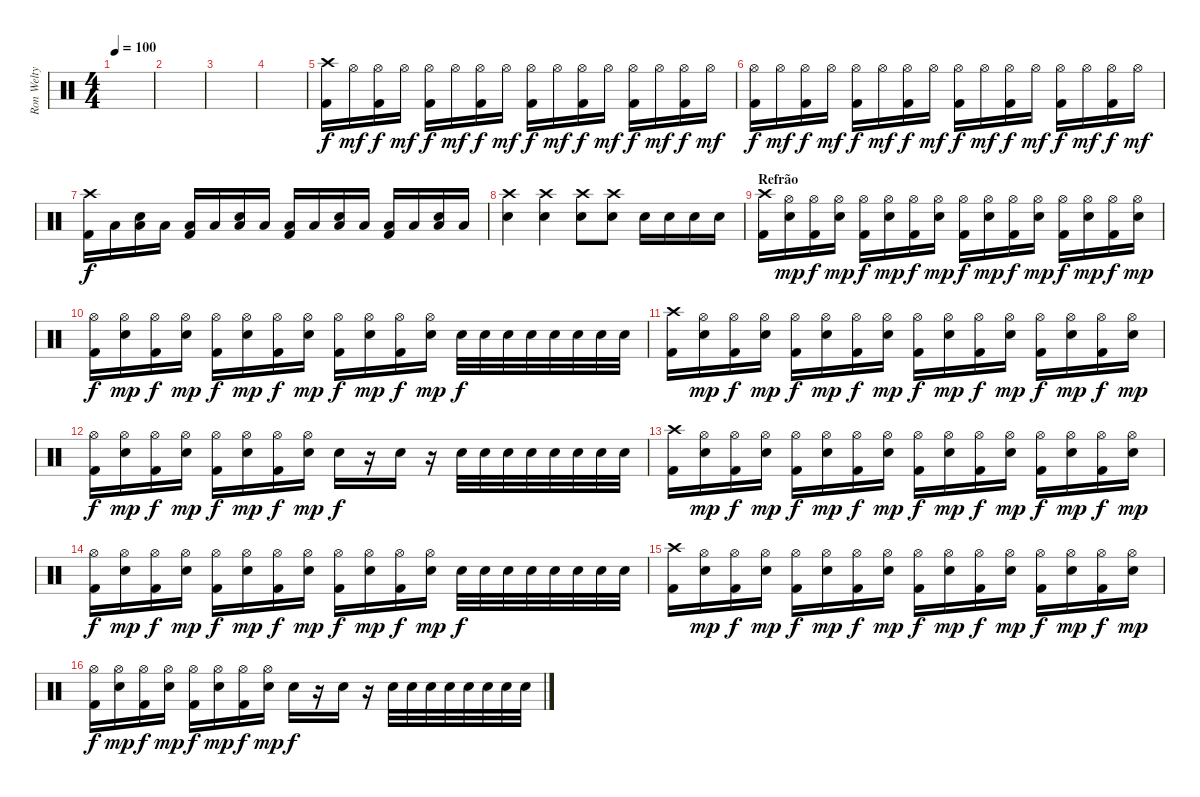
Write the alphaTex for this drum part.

\track ("Ron Welty" "Ron Welty") {instrument percussion}
\staff {score}
\articulation defaults
\ts (4 4)
\tempo 100
\clef neutral
\ks c
|
|
|
|
("Crash high (hit)" "Kick (hit) 2").16 "Hi-Hat (open)".16{dy mf} ("Hi-Hat (open)" "Kick (hit) 2").16{dy f} "Hi-Hat (open)".16{dy mf} ("Hi-Hat (open)" "Kick (hit) 2").16{dy f} "Hi-Hat (open)".16{dy mf} ("Hi-Hat (open)" "Kick (hit) 2").16{dy f} "Hi-Hat (open)".16{dy mf} ("Hi-Hat (open)" "Kick (hit) 2").16{dy f} "Hi-Hat (open)".16{dy mf} ("Hi-Hat (open)" "Kick (hit) 2").16{dy f} "Hi-Hat (open)".16{dy mf} ("Hi-Hat (open)" "Kick (hit) 2").16{dy f} "Hi-Hat (open)".16{dy mf} ("Hi-Hat (open)" "Kick (hit) 2").16{dy f} "Hi-Hat (open)".16{dy mf} |
("Hi-Hat (open)" "Kick (hit) 2").16{dy f} "Hi-Hat (open)".16{dy mf} ("Hi-Hat (open)" "Kick (hit) 2").16{dy f} "Hi-Hat (open)".16{dy mf} ("Hi-Hat (open)" "Kick (hit) 2").16{dy f} "Hi-Hat (open)".16{dy mf} ("Hi-Hat (open)" "Kick (hit) 2").16{dy f} "Hi-Hat (open)".16{dy mf} ("Hi-Hat (open)" "Kick (hit) 2").16{dy f} "Hi-Hat (open)".16{dy mf} ("Hi-Hat (open)" "Kick (hit) 2").16{dy f} "Hi-Hat (open)".16{dy mf} ("Hi-Hat (open)" "Kick (hit) 2").16{dy f} "Hi-Hat (open)".16{dy mf} ("Hi-Hat (open)" "Kick (hit) 2").16{dy f} "Hi-Hat (open)".16{dy mf} |
("Crash high (hit)" "Kick (hit) 2").16{dy f} "Low Tom (hit)".16 ("Low Tom (hit)" "Snare (hit) 2").16 "Low Tom (hit)".16 ("Low Tom (hit)" "Kick (hit) 2").16 "Low Tom (hit)".16 ("Low Tom (hit)" "Snare (hit) 2").16 "Low Tom (hit)".16 ("Low Tom (hit)" "Kick (hit) 2").16 "Low Tom (hit)".16 ("Low Tom (hit)" "Snare (hit) 2").16 "Low Tom (hit)".16 ("Low Tom (hit)" "Kick (hit) 2").16 "Low Tom (hit)".16 ("Low Tom (hit)" "Snare (hit) 2").16 "Low Tom (hit)".16 |
("Crash high (hit)" "Snare (hit) 2").4 ("Crash high (hit)" "Snare (hit) 2").4 ("Crash high (hit)" "Snare (hit) 2").8 ("Crash high (hit)" "Snare (hit) 2").8 "Snare (hit) 2".16 "Snare (hit) 2".16 "Snare (hit) 2".16 "Snare (hit) 2".16 |
\section ("" "Refrão")
("Crash high (hit)" "Kick (hit) 2").16 ("Hi-Hat (open)" "Snare (hit) 2").16{dy mp} ("Hi-Hat (open)" "Kick (hit) 2").16{dy f} ("Hi-Hat (open)" "Snare (hit) 2").16{dy mp} ("Hi-Hat (open)" "Kick (hit) 2").16{dy f} ("Hi-Hat (open)" "Snare (hit) 2").16{dy mp} ("Hi-Hat (open)" "Kick (hit) 2").16{dy f} ("Hi-Hat (open)" "Snare (hit) 2").16{dy mp} ("Hi-Hat (open)" "Kick (hit) 2").16{dy f} ("Hi-Hat (open)" "Snare (hit) 2").16{dy mp} ("Hi-Hat (open)" "Kick (hit) 2").16{dy f} ("Hi-Hat (open)" "Snare (hit) 2").16{dy mp} ("Hi-Hat (open)" "Kick (hit) 2").16{dy f} ("Hi-Hat (open)" "Snare (hit) 2").16{dy mp} ("Hi-Hat (open)" "Kick (hit) 2").16{dy f} ("Hi-Hat (open)" "Snare (hit) 2").16{dy mp} |
("Hi-Hat (open)" "Kick (hit) 2").16{dy f} ("Hi-Hat (open)" "Snare (hit) 2").16{dy mp} ("Hi-Hat (open)" "Kick (hit) 2").16{dy f} ("Hi-Hat (open)" "Snare (hit) 2").16{dy mp} ("Hi-Hat (open)" "Kick (hit) 2").16{dy f} ("Hi-Hat (open)" "Snare (hit) 2").16{dy mp} ("Hi-Hat (open)" "Kick (hit) 2").16{dy f} ("Hi-Hat (open)" "Snare (hit) 2").16{dy mp} ("Hi-Hat (open)" "Kick (hit) 2").16{dy f} ("Hi-Hat (open)" "Snare (hit) 2").16{dy mp} ("Hi-Hat (open)" "Kick (hit) 2").16{dy f} ("Hi-Hat (open)" "Snare (hit) 2").16{dy mp} "Snare (hit) 2".32{dy f} "Snare (hit) 2".32 "Snare (hit) 2".32 "Snare (hit) 2".32 "Snare (hit) 2".32 "Snare (hit) 2".32 "Snare (hit) 2".32 "Snare (hit) 2".32 |
("Crash high (hit)" "Kick (hit) 2").16 ("Hi-Hat (open)" "Snare (hit) 2").16{dy mp} ("Hi-Hat (open)" "Kick (hit) 2").16{dy f} ("Hi-Hat (open)" "Snare (hit) 2").16{dy mp} ("Hi-Hat (open)" "Kick (hit) 2").16{dy f} ("Hi-Hat (open)" "Snare (hit) 2").16{dy mp} ("Hi-Hat (open)" "Kick (hit) 2").16{dy f} ("Hi-Hat (open)" "Snare (hit) 2").16{dy mp} ("Hi-Hat (open)" "Kick (hit) 2").16{dy f} ("Hi-Hat (open)" "Snare (hit) 2").16{dy mp} ("Hi-Hat (open)" "Kick (hit) 2").16{dy f} ("Hi-Hat (open)" "Snare (hit) 2").16{dy mp} ("Hi-Hat (open)" "Kick (hit) 2").16{dy f} ("Hi-Hat (open)" "Snare (hit) 2").16{dy mp} ("Hi-Hat (open)" "Kick (hit) 2").16{dy f} ("Hi-Hat (open)" "Snare (hit) 2").16{dy mp} |
("Hi-Hat (open)" "Kick (hit) 2").16{dy f} ("Hi-Hat (open)" "Snare (hit) 2").16{dy mp} ("Hi-Hat (open)" "Kick (hit) 2").16{dy f} ("Hi-Hat (open)" "Snare (hit) 2").16{dy mp} ("Hi-Hat (open)" "Kick (hit) 2").16{dy f} ("Hi-Hat (open)" "Snare (hit) 2").16{dy mp} ("Hi-Hat (open)" "Kick (hit) 2").16{dy f} ("Hi-Hat (open)" "Snare (hit) 2").16{dy mp} "Snare (hit) 2".16{dy f} r.16 "Snare (hit) 2".16 r.16 "Snare (hit) 2".32 "Snare (hit) 2".32 "Snare (hit) 2".32 "Snare (hit) 2".32 "Snare (hit) 2".32 "Snare (hit) 2".32 "Snare (hit) 2".32 "Snare (hit) 2".32 |
("Crash high (hit)" "Kick (hit) 2").16 ("Hi-Hat (open)" "Snare (hit) 2").16{dy mp} ("Hi-Hat (open)" "Kick (hit) 2").16{dy f} ("Hi-Hat (open)" "Snare (hit) 2").16{dy mp} ("Hi-Hat (open)" "Kick (hit) 2").16{dy f} ("Hi-Hat (open)" "Snare (hit) 2").16{dy mp} ("Hi-Hat (open)" "Kick (hit) 2").16{dy f} ("Hi-Hat (open)" "Snare (hit) 2").16{dy mp} ("Hi-Hat (open)" "Kick (hit) 2").16{dy f} ("Hi-Hat (open)" "Snare (hit) 2").16{dy mp} ("Hi-Hat (open)" "Kick (hit) 2").16{dy f} ("Hi-Hat (open)" "Snare (hit) 2").16{dy mp} ("Hi-Hat (open)" "Kick (hit) 2").16{dy f} ("Hi-Hat (open)" "Snare (hit) 2").16{dy mp} ("Hi-Hat (open)" "Kick (hit) 2").16{dy f} ("Hi-Hat (open)" "Snare (hit) 2").16{dy mp} |
("Hi-Hat (open)" "Kick (hit) 2").16{dy f} ("Hi-Hat (open)" "Snare (hit) 2").16{dy mp} ("Hi-Hat (open)" "Kick (hit) 2").16{dy f} ("Hi-Hat (open)" "Snare (hit) 2").16{dy mp} ("Hi-Hat (open)" "Kick (hit) 2").16{dy f} ("Hi-Hat (open)" "Snare (hit) 2").16{dy mp} ("Hi-Hat (open)" "Kick (hit) 2").16{dy f} ("Hi-Hat (open)" "Snare (hit) 2").16{dy mp} ("Hi-Hat (open)" "Kick (hit) 2").16{dy f} ("Hi-Hat (open)" "Snare (hit) 2").16{dy mp} ("Hi-Hat (open)" "Kick (hit) 2").16{dy f} ("Hi-Hat (open)" "Snare (hit) 2").16{dy mp} "Snare (hit) 2".32{dy f} "Snare (hit) 2".32 "Snare (hit) 2".32 "Snare (hit) 2".32 "Snare (hit) 2".32 "Snare (hit) 2".32 "Snare (hit) 2".32 "Snare (hit) 2".32 |
("Crash high (hit)" "Kick (hit) 2").16 ("Hi-Hat (open)" "Snare (hit) 2").16{dy mp} ("Hi-Hat (open)" "Kick (hit) 2").16{dy f} ("Hi-Hat (open)" "Snare (hit) 2").16{dy mp} ("Hi-Hat (open)" "Kick (hit) 2").16{dy f} ("Hi-Hat (open)" "Snare (hit) 2").16{dy mp} ("Hi-Hat (open)" "Kick (hit) 2").16{dy f} ("Hi-Hat (open)" "Snare (hit) 2").16{dy mp} ("Hi-Hat (open)" "Kick (hit) 2").16{dy f} ("Hi-Hat (open)" "Snare (hit) 2").16{dy mp} ("Hi-Hat (open)" "Kick (hit) 2").16{dy f} ("Hi-Hat (open)" "Snare (hit) 2").16{dy mp} ("Hi-Hat (open)" "Kick (hit) 2").16{dy f} ("Hi-Hat (open)" "Snare (hit) 2").16{dy mp} ("Hi-Hat (open)" "Kick (hit) 2").16{dy f} ("Hi-Hat (open)" "Snare (hit) 2").16{dy mp} |
("Hi-Hat (open)" "Kick (hit) 2").16{dy f} ("Hi-Hat (open)" "Snare (hit) 2").16{dy mp} ("Hi-Hat (open)" "Kick (hit) 2").16{dy f} ("Hi-Hat (open)" "Snare (hit) 2").16{dy mp} ("Hi-Hat (open)" "Kick (hit) 2").16{dy f} ("Hi-Hat (open)" "Snare (hit) 2").16{dy mp} ("Hi-Hat (open)" "Kick (hit) 2").16{dy f} ("Hi-Hat (open)" "Snare (hit) 2").16{dy mp} "Snare (hit) 2".16{dy f} r.16 "Snare (hit) 2".16 r.16 "Snare (hit) 2".32 "Snare (hit) 2".32 "Snare (hit) 2".32 "Snare (hit) 2".32 "Snare (hit) 2".32 "Snare (hit) 2".32 "Snare (hit) 2".32 "Snare (hit) 2".32
